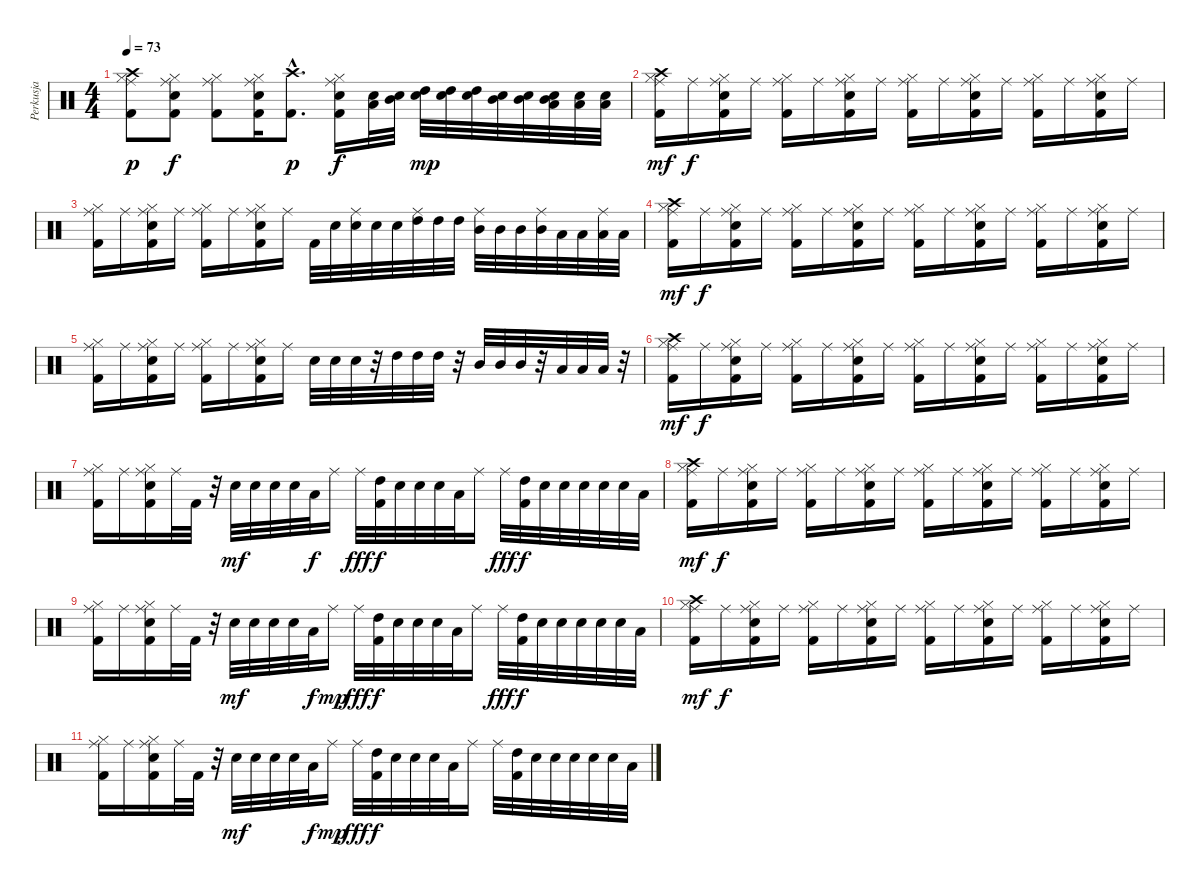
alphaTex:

\track ("Perkusja" "Perkusja") {instrument percussion}
\staff {score}
\articulation defaults
\ts (4 4)
\tempo 73
\clef neutral
\ks c
("Hi-Hat (closed)" "Crash high (hit)" "Kick (hit) 2" "Ride (middle)").8{dy p} ("Hi-Hat (closed)" "Snare (hit) 2" "Kick (hit) 2" "Ride (middle)").8{dy f} ("Hi-Hat (closed)" "Kick (hit) 2" "Ride (middle)").8 ("Hi-Hat (closed)" "Snare (hit) 2" "Kick (hit) 2" "Ride (middle)").16 ("Crash high (hit)"{hac} "Kick (hit) 2"{hac}).8{d dy p} ("Hi-Hat (closed)" "Snare (hit) 2" "Kick (hit) 2" "Ride (middle)").16{dy f} ("Low Tom (hit)" "Snare (hit) 2").32 ("Mid Tom (hit)" "Snare (hit) 2").32 ("High Tom (hit)" "Snare (hit) 2").32{dy mp} ("High Tom (hit)" "Snare (hit) 2").32 ("High Tom (hit)" "Snare (hit) 2").32 ("Mid Tom (hit)" "Snare (hit) 2").32 ("Mid Tom (hit)" "Snare (hit) 2").32 ("Mid Tom (hit)" "Low Tom (hit)" "Snare (hit) 2").32 ("Low Tom (hit)" "Snare (hit) 2").32 ("Low Tom (hit)" "Snare (hit) 2").32 |
("Hi-Hat (closed)" "Crash high (hit)" "Kick (hit) 2" "Ride (middle)").16{dy mf} "Ride (middle)".16{dy f} ("Hi-Hat (closed)" "Snare (hit) 2" "Kick (hit) 2" "Ride (middle)").16 "Ride (middle)".16 ("Hi-Hat (closed)" "Kick (hit) 2" "Ride (middle)").16 "Ride (middle)".16 ("Hi-Hat (closed)" "Snare (hit) 2" "Kick (hit) 2" "Ride (middle)").16 "Ride (middle)".16 ("Hi-Hat (closed)" "Kick (hit) 2" "Ride (middle)").16 "Ride (middle)".16 ("Hi-Hat (closed)" "Snare (hit) 2" "Kick (hit) 2" "Ride (middle)").16 "Ride (middle)".16 ("Hi-Hat (closed)" "Kick (hit) 2" "Ride (middle)").16 "Ride (middle)".16 ("Hi-Hat (closed)" "Snare (hit) 2" "Kick (hit) 2" "Ride (middle)").16 "Ride (middle)".16 |
("Hi-Hat (closed)" "Kick (hit) 2" "Ride (middle)").16 "Ride (middle)".16 ("Hi-Hat (closed)" "Snare (hit) 2" "Kick (hit) 2" "Ride (middle)").16 "Ride (middle)".16 ("Hi-Hat (closed)" "Kick (hit) 2" "Ride (middle)").16 "Ride (middle)".16 ("Hi-Hat (closed)" "Snare (hit) 2" "Kick (hit) 2" "Ride (middle)").16 "Ride (middle)".16 "Kick (hit) 2".32 "Snare (hit) 2".32 ("Snare (hit) 2" "Ride (middle)").32 "Snare (hit) 2".32 "Snare (hit) 2".32 ("High Tom (hit)" "Ride (middle)").32 "High Tom (hit)".32 "High Tom (hit)".32 ("Mid Tom (hit)" "Ride (middle)").32 "Mid Tom (hit)".32 "Mid Tom (hit)".32 ("Mid Tom (hit)" "Ride (middle)").32 "Low Tom (hit)".32 "Low Tom (hit)".32 ("Low Tom (hit)" "Ride (middle)").32 "Low Tom (hit)".32 |
("Hi-Hat (closed)" "Crash high (hit)" "Kick (hit) 2" "Ride (middle)").16{dy mf} "Ride (middle)".16{dy f} ("Hi-Hat (closed)" "Snare (hit) 2" "Kick (hit) 2" "Ride (middle)").16 "Ride (middle)".16 ("Hi-Hat (closed)" "Kick (hit) 2" "Ride (middle)").16 "Ride (middle)".16 ("Hi-Hat (closed)" "Snare (hit) 2" "Kick (hit) 2" "Ride (middle)").16 "Ride (middle)".16 ("Hi-Hat (closed)" "Kick (hit) 2" "Ride (middle)").16 "Ride (middle)".16 ("Hi-Hat (closed)" "Snare (hit) 2" "Kick (hit) 2" "Ride (middle)").16 "Ride (middle)".16 ("Hi-Hat (closed)" "Kick (hit) 2" "Ride (middle)").16 "Ride (middle)".16 ("Hi-Hat (closed)" "Snare (hit) 2" "Kick (hit) 2" "Ride (middle)").16 "Ride (middle)".16 |
("Hi-Hat (closed)" "Kick (hit) 2" "Ride (middle)").16 "Ride (middle)".16 ("Hi-Hat (closed)" "Snare (hit) 2" "Kick (hit) 2" "Ride (middle)").16 "Ride (middle)".16 ("Hi-Hat (closed)" "Kick (hit) 2" "Ride (middle)").16 "Ride (middle)".16 ("Hi-Hat (closed)" "Snare (hit) 2" "Kick (hit) 2" "Ride (middle)").16 "Ride (middle)".16 "Snare (hit) 2".32 "Snare (hit) 2".32 "Snare (hit) 2".32 r.32 "High Tom (hit)".32 "High Tom (hit)".32 "High Tom (hit)".32 r.32 "Mid Tom (hit)".32 "Mid Tom (hit)".32 "Mid Tom (hit)".32 r.32 "Low Tom (hit)".32 "Low Tom (hit)".32 "Low Tom (hit)".32 r.32 |
("Hi-Hat (closed)" "Crash high (hit)" "Kick (hit) 2" "Ride (middle)").16{dy mf} "Ride (middle)".16{dy f} ("Hi-Hat (closed)" "Snare (hit) 2" "Kick (hit) 2" "Ride (middle)").16 "Ride (middle)".16 ("Hi-Hat (closed)" "Kick (hit) 2" "Ride (middle)").16 "Ride (middle)".16 ("Hi-Hat (closed)" "Snare (hit) 2" "Kick (hit) 2" "Ride (middle)").16 "Ride (middle)".16 ("Hi-Hat (closed)" "Kick (hit) 2" "Ride (middle)").16 "Ride (middle)".16 ("Hi-Hat (closed)" "Snare (hit) 2" "Kick (hit) 2" "Ride (middle)").16 "Ride (middle)".16 ("Hi-Hat (closed)" "Kick (hit) 2" "Ride (middle)").16 "Ride (middle)".16 ("Hi-Hat (closed)" "Snare (hit) 2" "Kick (hit) 2" "Ride (middle)").16 "Ride (middle)".16 |
("Hi-Hat (closed)" "Kick (hit) 2" "Ride (middle)").16 "Ride (middle)".16 ("Hi-Hat (closed)" "Snare (hit) 2" "Kick (hit) 2" "Ride (middle)").16 "Ride (middle)".32 "Kick (hit) 2".32 r.32 "Snare (hit) 2".32{dy mf} "Snare (hit) 2".32 "Snare (hit) 2".32 "Snare (hit) 2".32 "Low Tom (hit)".32{dy f} "Ride (middle)".16 "Ride (middle)".32{dy fff} ("High Tom (hit)" "Kick (hit) 2").32{dy f} "Snare (hit) 2".32 "Snare (hit) 2".32 "Snare (hit) 2".32 "Low Tom (hit)".32 "Ride (middle)".16 "Ride (middle)".32{dy fff} ("High Tom (hit)" "Kick (hit) 2").32{dy f} "Snare (hit) 2".32 "Snare (hit) 2".32 "Snare (hit) 2".32 "Snare (hit) 2".32 "Snare (hit) 2".32 "Low Tom (hit)".32 |
("Hi-Hat (closed)" "Crash high (hit)" "Kick (hit) 2" "Ride (middle)").16{dy mf} "Ride (middle)".16{dy f} ("Hi-Hat (closed)" "Snare (hit) 2" "Kick (hit) 2" "Ride (middle)").16 "Ride (middle)".16 ("Hi-Hat (closed)" "Kick (hit) 2" "Ride (middle)").16 "Ride (middle)".16 ("Hi-Hat (closed)" "Snare (hit) 2" "Kick (hit) 2" "Ride (middle)").16 "Ride (middle)".16 ("Hi-Hat (closed)" "Kick (hit) 2" "Ride (middle)").16 "Ride (middle)".16 ("Hi-Hat (closed)" "Snare (hit) 2" "Kick (hit) 2" "Ride (middle)").16 "Ride (middle)".16 ("Hi-Hat (closed)" "Kick (hit) 2" "Ride (middle)").16 "Ride (middle)".16 ("Hi-Hat (closed)" "Snare (hit) 2" "Kick (hit) 2" "Ride (middle)").16 "Ride (middle)".16 |
("Hi-Hat (closed)" "Kick (hit) 2" "Ride (middle)").16 "Ride (middle)".16 ("Hi-Hat (closed)" "Snare (hit) 2" "Kick (hit) 2" "Ride (middle)").16 "Ride (middle)".32 "Kick (hit) 2".32 r.32 "Snare (hit) 2".32{dy mf} "Snare (hit) 2".32 "Snare (hit) 2".32 "Snare (hit) 2".32 "Low Tom (hit)".32{dy f} "Ride (middle)".16{dy mp} "Ride (middle)".32{dy fff} ("High Tom (hit)" "Kick (hit) 2").32{dy f} "Snare (hit) 2".32 "Snare (hit) 2".32 "Snare (hit) 2".32 "Low Tom (hit)".32 "Ride (middle)".16 "Ride (middle)".32{dy fff} ("High Tom (hit)" "Kick (hit) 2").32{dy f} "Snare (hit) 2".32 "Snare (hit) 2".32 "Snare (hit) 2".32 "Snare (hit) 2".32 "Snare (hit) 2".32 "Low Tom (hit)".32 |
("Hi-Hat (closed)" "Crash high (hit)" "Kick (hit) 2" "Ride (middle)").16{dy mf} "Ride (middle)".16{dy f} ("Hi-Hat (closed)" "Snare (hit) 2" "Kick (hit) 2" "Ride (middle)").16 "Ride (middle)".16 ("Hi-Hat (closed)" "Kick (hit) 2" "Ride (middle)").16 "Ride (middle)".16 ("Hi-Hat (closed)" "Snare (hit) 2" "Kick (hit) 2" "Ride (middle)").16 "Ride (middle)".16 ("Hi-Hat (closed)" "Kick (hit) 2" "Ride (middle)").16 "Ride (middle)".16 ("Hi-Hat (closed)" "Snare (hit) 2" "Kick (hit) 2" "Ride (middle)").16 "Ride (middle)".16 ("Hi-Hat (closed)" "Kick (hit) 2" "Ride (middle)").16 "Ride (middle)".16 ("Hi-Hat (closed)" "Snare (hit) 2" "Kick (hit) 2" "Ride (middle)").16 "Ride (middle)".16 |
("Hi-Hat (closed)" "Kick (hit) 2" "Ride (middle)").16 "Ride (middle)".16 ("Hi-Hat (closed)" "Snare (hit) 2" "Kick (hit) 2" "Ride (middle)").16 "Ride (middle)".32 "Kick (hit) 2".32 r.32 "Snare (hit) 2".32{dy mf} "Snare (hit) 2".32 "Snare (hit) 2".32 "Snare (hit) 2".32 "Low Tom (hit)".32{dy f} "Ride (middle)".16{dy mp} "Ride (middle)".32{dy fff} ("High Tom (hit)" "Kick (hit) 2").32{dy f} "Snare (hit) 2".32 "Snare (hit) 2".32 "Snare (hit) 2".32 "Low Tom (hit)".32 "Ride (middle)".16 "Ride (middle)".32 ("High Tom (hit)" "Kick (hit) 2").32 "Snare (hit) 2".32 "Snare (hit) 2".32 "Snare (hit) 2".32 "Snare (hit) 2".32 "Snare (hit) 2".32 "Low Tom (hit)".32
